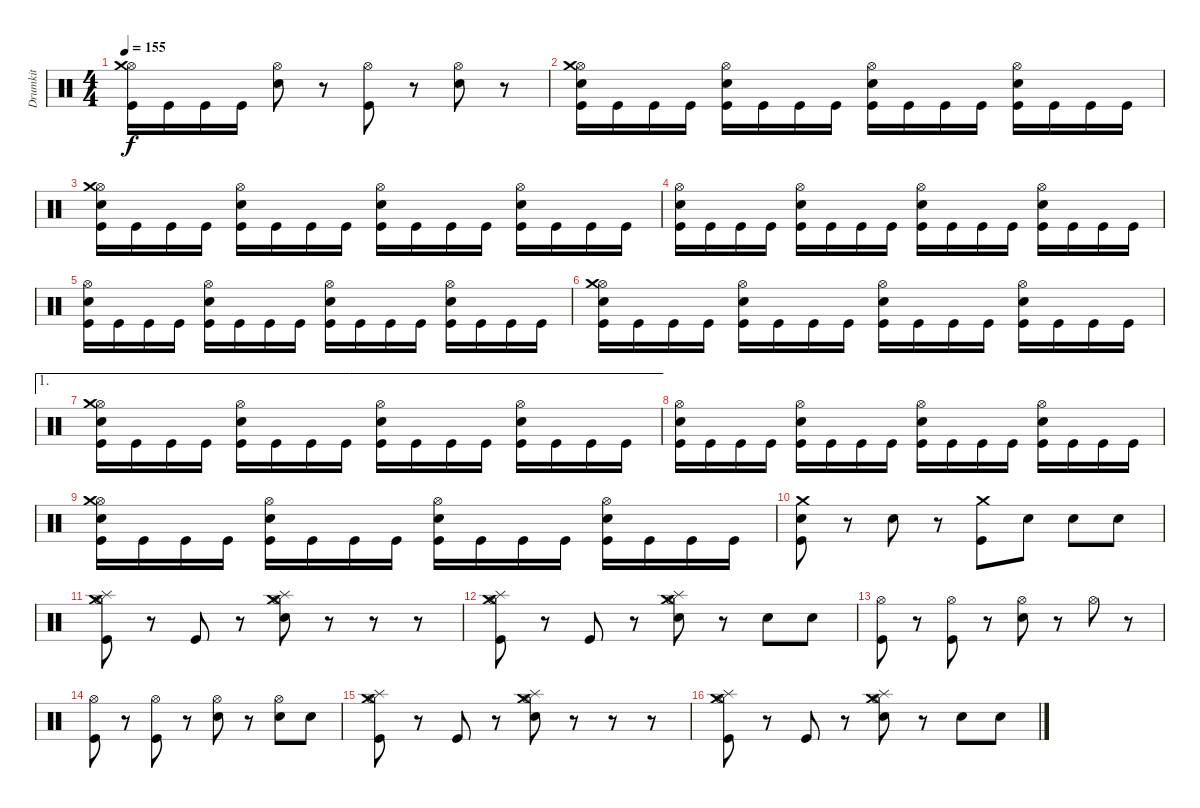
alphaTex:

\track ("Drumkit" "Drumkit") {instrument percussion}
\staff {score}
\articulation defaults
\ts (4 4)
\tempo 155
\clef neutral
\ks c
("Hi-Hat (open)" "Crash medium (hit)" "Kick (hit)").16{dy f} "Kick (hit)".16 "Kick (hit)".16 "Kick (hit)".16 ("Hi-Hat (open)" "Snare (hit) 2").8 r.8 ("Hi-Hat (open)" "Kick (hit)").8 r.8 ("Hi-Hat (open)" "Snare (hit) 2").8 r.8 |
("Hi-Hat (open)" "Crash medium (hit)" "Snare (hit) 2" "Kick (hit)").16 "Kick (hit)".16 "Kick (hit)".16 "Kick (hit)".16 ("Hi-Hat (open)" "Snare (hit) 2" "Kick (hit)").16 "Kick (hit)".16 "Kick (hit)".16 "Kick (hit)".16 ("Hi-Hat (open)" "Snare (hit) 2" "Kick (hit)").16 "Kick (hit)".16 "Kick (hit)".16 "Kick (hit)".16 ("Hi-Hat (open)" "Snare (hit) 2" "Kick (hit)").16 "Kick (hit)".16 "Kick (hit)".16 "Kick (hit)".16 |
("Hi-Hat (open)" "Crash medium (hit)" "Snare (hit) 2" "Kick (hit)").16 "Kick (hit)".16 "Kick (hit)".16 "Kick (hit)".16 ("Hi-Hat (open)" "Snare (hit) 2" "Kick (hit)").16 "Kick (hit)".16 "Kick (hit)".16 "Kick (hit)".16 ("Hi-Hat (open)" "Snare (hit) 2" "Kick (hit)").16 "Kick (hit)".16 "Kick (hit)".16 "Kick (hit)".16 ("Hi-Hat (open)" "Snare (hit) 2" "Kick (hit)").16 "Kick (hit)".16 "Kick (hit)".16 "Kick (hit)".16 |
("Hi-Hat (open)" "Snare (hit) 2" "Kick (hit)").16 "Kick (hit)".16 "Kick (hit)".16 "Kick (hit)".16 ("Hi-Hat (open)" "Snare (hit) 2" "Kick (hit)").16 "Kick (hit)".16 "Kick (hit)".16 "Kick (hit)".16 ("Hi-Hat (open)" "Snare (hit) 2" "Kick (hit)").16 "Kick (hit)".16 "Kick (hit)".16 "Kick (hit)".16 ("Hi-Hat (open)" "Snare (hit) 2" "Kick (hit)").16 "Kick (hit)".16 "Kick (hit)".16 "Kick (hit)".16 |
("Hi-Hat (open)" "Snare (hit) 2" "Kick (hit)").16 "Kick (hit)".16 "Kick (hit)".16 "Kick (hit)".16 ("Hi-Hat (open)" "Snare (hit) 2" "Kick (hit)").16 "Kick (hit)".16 "Kick (hit)".16 "Kick (hit)".16 ("Hi-Hat (open)" "Snare (hit) 2" "Kick (hit)").16 "Kick (hit)".16 "Kick (hit)".16 "Kick (hit)".16 ("Hi-Hat (open)" "Snare (hit) 2" "Kick (hit)").16 "Kick (hit)".16 "Kick (hit)".16 "Kick (hit)".16 |
("Hi-Hat (open)" "Crash medium (hit)" "Snare (hit) 2" "Kick (hit)").16 "Kick (hit)".16 "Kick (hit)".16 "Kick (hit)".16 ("Hi-Hat (open)" "Snare (hit) 2" "Kick (hit)").16 "Kick (hit)".16 "Kick (hit)".16 "Kick (hit)".16 ("Hi-Hat (open)" "Snare (hit) 2" "Kick (hit)").16 "Kick (hit)".16 "Kick (hit)".16 "Kick (hit)".16 ("Hi-Hat (open)" "Snare (hit) 2" "Kick (hit)").16 "Kick (hit)".16 "Kick (hit)".16 "Kick (hit)".16 |
\ae 1
("Hi-Hat (open)" "Crash medium (hit)" "Snare (hit) 2" "Kick (hit)").16 "Kick (hit)".16 "Kick (hit)".16 "Kick (hit)".16 ("Hi-Hat (open)" "Snare (hit) 2" "Kick (hit)").16 "Kick (hit)".16 "Kick (hit)".16 "Kick (hit)".16 ("Hi-Hat (open)" "Snare (hit) 2" "Kick (hit)").16 "Kick (hit)".16 "Kick (hit)".16 "Kick (hit)".16 ("Hi-Hat (open)" "Snare (hit) 2" "Kick (hit)").16 "Kick (hit)".16 "Kick (hit)".16 "Kick (hit)".16 |
("Hi-Hat (open)" "Snare (hit) 2" "Kick (hit)").16 "Kick (hit)".16 "Kick (hit)".16 "Kick (hit)".16 ("Hi-Hat (open)" "Snare (hit) 2" "Kick (hit)").16 "Kick (hit)".16 "Kick (hit)".16 "Kick (hit)".16 ("Hi-Hat (open)" "Snare (hit) 2" "Kick (hit)").16 "Kick (hit)".16 "Kick (hit)".16 "Kick (hit)".16 ("Hi-Hat (open)" "Snare (hit) 2" "Kick (hit)").16 "Kick (hit)".16 "Kick (hit)".16 "Kick (hit)".16 |
("Hi-Hat (open)" "Crash medium (hit)" "Snare (hit) 2" "Kick (hit)").16 "Kick (hit)".16 "Kick (hit)".16 "Kick (hit)".16 ("Hi-Hat (open)" "Snare (hit) 2" "Kick (hit)").16 "Kick (hit)".16 "Kick (hit)".16 "Kick (hit)".16 ("Hi-Hat (open)" "Snare (hit) 2" "Kick (hit)").16 "Kick (hit)".16 "Kick (hit)".16 "Kick (hit)".16 ("Hi-Hat (open)" "Snare (hit) 2" "Kick (hit)").16 "Kick (hit)".16 "Kick (hit)".16 "Kick (hit)".16 |
("Crash medium (hit)" "Snare (hit) 2" "Kick (hit)").8 r.8 "Snare (hit) 2".8 r.8 ("Crash medium (hit)" "Kick (hit)").8 "Snare (hit) 2".8 "Snare (hit) 2".8 "Snare (hit) 2".8 |
("Hi-Hat (open)" "Splash (hit)" "Crash medium (hit)" "Kick (hit)").8 r.8 "Kick (hit)".8 r.8 ("Hi-Hat (open)" "Splash (hit)" "Crash medium (hit)" "Snare (hit) 2").8 r.8 r.8 r.8 |
("Hi-Hat (open)" "Splash (hit)" "Crash medium (hit)" "Kick (hit)").8 r.8 "Kick (hit)".8 r.8 ("Hi-Hat (open)" "Splash (hit)" "Crash medium (hit)" "Snare (hit) 2").8 r.8 "Snare (hit) 2".8 "Snare (hit) 2".8 |
("Hi-Hat (open)" "Kick (hit)").8 r.8 ("Hi-Hat (open)" "Kick (hit)").8 r.8 ("Hi-Hat (open)" "Snare (hit) 2").8 r.8 "Hi-Hat (open)".8 r.8 |
("Hi-Hat (open)" "Kick (hit)").8 r.8 ("Hi-Hat (open)" "Kick (hit)").8 r.8 ("Hi-Hat (open)" "Snare (hit) 2").8 r.8 ("Hi-Hat (open)" "Snare (hit) 2").8 "Snare (hit) 2".8 |
("Hi-Hat (open)" "Splash (hit)" "Crash medium (hit)" "Kick (hit)").8 r.8 "Kick (hit)".8 r.8 ("Hi-Hat (open)" "Splash (hit)" "Crash medium (hit)" "Snare (hit) 2").8 r.8 r.8 r.8 |
("Hi-Hat (open)" "Splash (hit)" "Crash medium (hit)" "Kick (hit)").8 r.8 "Kick (hit)".8 r.8 ("Hi-Hat (open)" "Splash (hit)" "Crash medium (hit)" "Snare (hit) 2").8 r.8 "Snare (hit) 2".8 "Snare (hit) 2".8
